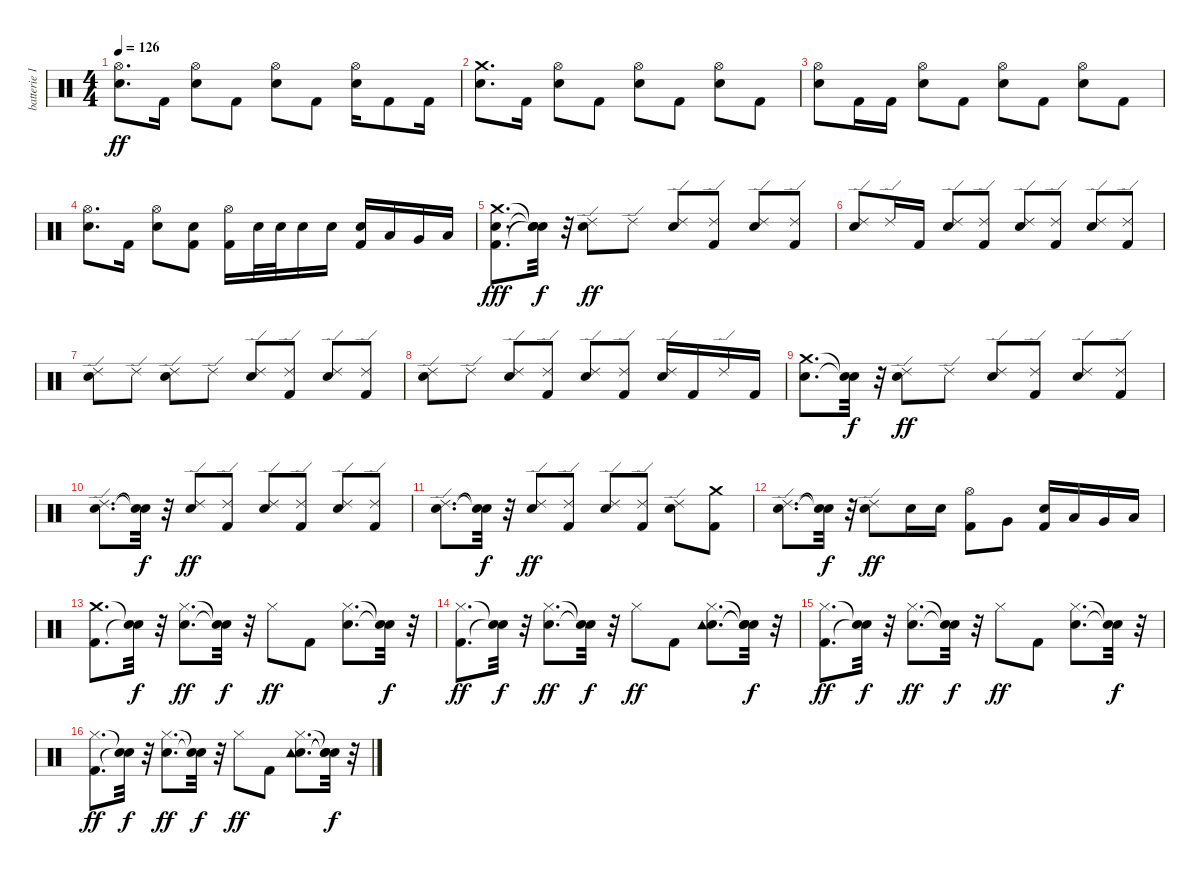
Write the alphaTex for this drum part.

\track ("batterie 1" "batterie 1") {instrument percussion}
\staff {score}
\articulation defaults
\ts (4 4)
\tempo 126
\clef neutral
\ks c
("Electric Snare (hit)" "Hi-Hat (open)").8{d dy ff} "Kick (hit) 2".16 ("Electric Snare (hit)" "Hi-Hat (open)").8 "Kick (hit) 2".8 ("Electric Snare (hit)" "Hi-Hat (open)").8 "Kick (hit) 2".8 ("Electric Snare (hit)" "Hi-Hat (open)").16 "Kick (hit) 2".8 "Kick (hit) 2".16 |
("Electric Snare (hit)" "Crash medium (hit)").8{d} "Kick (hit) 2".16 ("Electric Snare (hit)" "Hi-Hat (open)").8 "Kick (hit) 2".8 ("Electric Snare (hit)" "Hi-Hat (open)").8 "Kick (hit) 2".8 ("Electric Snare (hit)" "Hi-Hat (open)").8 "Kick (hit) 2".8 |
("Electric Snare (hit)" "Hi-Hat (open)").8 "Kick (hit) 2".16 "Kick (hit) 2".16 ("Electric Snare (hit)" "Hi-Hat (open)").8 "Kick (hit) 2".8 ("Electric Snare (hit)" "Hi-Hat (open)").8 "Kick (hit) 2".8 ("Electric Snare (hit)" "Hi-Hat (open)").8 "Kick (hit) 2".8 |
("Electric Snare (hit)" "Hi-Hat (open)").8{d} "Kick (hit) 2".16 ("Electric Snare (hit)" "Hi-Hat (open)").8 ("Kick (hit) 2" "Electric Snare (hit)").8 ("Kick (hit) 2" "Hi-Hat (open)").16 "Electric Snare (hit)".32 "Electric Snare (hit)".32 "Electric Snare (hit)".16 "Electric Snare (hit)".16 ("Kick (hit) 2" "Electric Snare (hit)").16 "Low Tom (hit)".16 "Very Low Tom (hit)".16 "Low Floor Tom (hit)".16 |
("Kick (hit) 2" "Electric Snare (hit)" "Crash medium (hit)").8{d dy fff} ("Snare (hit)"{t} "Snare (hit)"{t} "Snare (hit)"{t}).32{dy f} r.32 ("Electric Snare (hit)" "Ride (edge) 2").8{dy ff} "Ride (edge) 2".8 ("Electric Snare (hit)" "Ride (edge) 2").8 ("Kick (hit) 2" "Ride (edge) 2").8 ("Electric Snare (hit)" "Ride (edge) 2").8 ("Kick (hit) 2" "Ride (edge) 2").8 |
("Electric Snare (hit)" "Ride (edge) 2").8 "Ride (edge) 2".16 "Kick (hit) 2".16 ("Electric Snare (hit)" "Ride (edge) 2").8 ("Kick (hit) 2" "Ride (edge) 2").8 ("Electric Snare (hit)" "Ride (edge) 2").8 ("Kick (hit) 2" "Ride (edge) 2").8 ("Electric Snare (hit)" "Ride (edge) 2").8 ("Kick (hit) 2" "Ride (edge) 2").8 |
("Electric Snare (hit)" "Ride (edge) 2").8 "Ride (edge) 2".8 ("Electric Snare (hit)" "Ride (edge) 2").8 "Ride (edge) 2".8 ("Electric Snare (hit)" "Ride (edge) 2").8 ("Kick (hit) 2" "Ride (edge) 2").8 ("Electric Snare (hit)" "Ride (edge) 2").8 ("Kick (hit) 2" "Ride (edge) 2").8 |
("Electric Snare (hit)" "Ride (edge) 2").8 "Ride (edge) 2".8 ("Electric Snare (hit)" "Ride (edge) 2").8 ("Kick (hit) 2" "Ride (edge) 2").8 ("Electric Snare (hit)" "Ride (edge) 2").8 ("Kick (hit) 2" "Ride (edge) 2").8 ("Electric Snare (hit)" "Ride (edge) 2").16 "Kick (hit) 2".16 "Ride (edge) 2".16 "Kick (hit) 2".16 |
("Electric Snare (hit)" "Crash medium (hit)").8{d} ("Snare (hit)"{t} "Snare (hit)"{t}).32{dy f} r.32 ("Electric Snare (hit)" "Ride (edge) 2").8{dy ff} "Ride (edge) 2".8 ("Electric Snare (hit)" "Ride (edge) 2").8 ("Kick (hit) 2" "Ride (edge) 2").8 ("Electric Snare (hit)" "Ride (edge) 2").8 ("Kick (hit) 2" "Ride (edge) 2").8 |
("Electric Snare (hit)" "Ride (edge) 2").8{d} ("Snare (hit)"{t} "Snare (hit)"{t}).32{dy f} r.32 ("Electric Snare (hit)" "Ride (edge) 2").8{dy ff} ("Kick (hit) 2" "Ride (edge) 2").8 ("Electric Snare (hit)" "Ride (edge) 2").8 ("Kick (hit) 2" "Ride (edge) 2").8 ("Electric Snare (hit)" "Ride (edge) 2").8 ("Kick (hit) 2" "Ride (edge) 2").8 |
("Electric Snare (hit)" "Ride (edge) 2").8{d} ("Snare (hit)"{t} "Snare (hit)"{t}).32{dy f} r.32 ("Electric Snare (hit)" "Ride (edge) 2").8{dy ff} ("Kick (hit) 2" "Ride (edge) 2").8 ("Electric Snare (hit)" "Ride (edge) 2").8 ("Kick (hit) 2" "Ride (edge) 2").8 ("Electric Snare (hit)" "Ride (edge) 2").8 ("Kick (hit) 2" "Crash medium (hit)").8 |
("Electric Snare (hit)" "Ride (edge) 2").8{d} ("Snare (hit)"{t} "Snare (hit)"{t}).32{dy f} r.32 ("Electric Snare (hit)" "Ride (edge) 2").8{dy ff} "Electric Snare (hit)".16 "Electric Snare (hit)".16 ("Kick (hit) 2" "Hi-Hat (open)").8 "Very Low Tom (hit)".8 ("Kick (hit) 2" "Electric Snare (hit)").16 "Low Tom (hit)".16 "Very Low Tom (hit)".16 "Low Floor Tom (hit)".16 |
("Kick (hit) 2" "Crash medium (hit)").8{d} ("Snare (hit)"{t} "Snare (hit)"{t}).32{dy f} r.32 ("Electric Snare (hit)" "Hi-Hat (closed)").8{d dy ff} ("Snare (hit)"{t} "Snare (hit)"{t}).32{dy f} r.32 "Hi-Hat (closed)".8{dy ff} "Kick (hit) 2".8 ("Electric Snare (hit)" "Hi-Hat (closed)").8{d} ("Snare (hit)"{t} "Snare (hit)"{t}).32{dy f} r.32 |
("Kick (hit) 2" "Hi-Hat (closed)").8{d dy ff} ("Snare (hit)"{t} "Snare (hit)"{t}).32{dy f} r.32 ("Electric Snare (hit)" "Hi-Hat (closed)").8{d dy ff} ("Snare (hit)"{t} "Snare (hit)"{t}).32{dy f} r.32 "Hi-Hat (closed)".8{dy ff} "Kick (hit) 2".8 ("Electric Snare (hit)" "Hi-Hat (closed)" "Tambourine (hit)").8{d} ("Snare (hit)"{t} "Snare (hit)"{t} "Snare (hit)"{t}).32{dy f} r.32 |
("Kick (hit) 2" "Hi-Hat (closed)").8{d dy ff} ("Snare (hit)"{t} "Snare (hit)"{t}).32{dy f} r.32 ("Electric Snare (hit)" "Hi-Hat (closed)").8{d dy ff} ("Snare (hit)"{t} "Snare (hit)"{t}).32{dy f} r.32 "Hi-Hat (closed)".8{dy ff} "Kick (hit) 2".8 ("Electric Snare (hit)" "Hi-Hat (closed)").8{d} ("Snare (hit)"{t} "Snare (hit)"{t}).32{dy f} r.32 |
("Kick (hit) 2" "Hi-Hat (closed)").8{d dy ff} ("Snare (hit)"{t} "Snare (hit)"{t}).32{dy f} r.32 ("Electric Snare (hit)" "Hi-Hat (closed)").8{d dy ff} ("Snare (hit)"{t} "Snare (hit)"{t}).32{dy f} r.32 "Hi-Hat (closed)".8{dy ff} "Kick (hit) 2".8 ("Electric Snare (hit)" "Hi-Hat (closed)" "Tambourine (hit)").8{d} ("Snare (hit)"{t} "Snare (hit)"{t} "Snare (hit)"{t}).32{dy f} r.32
